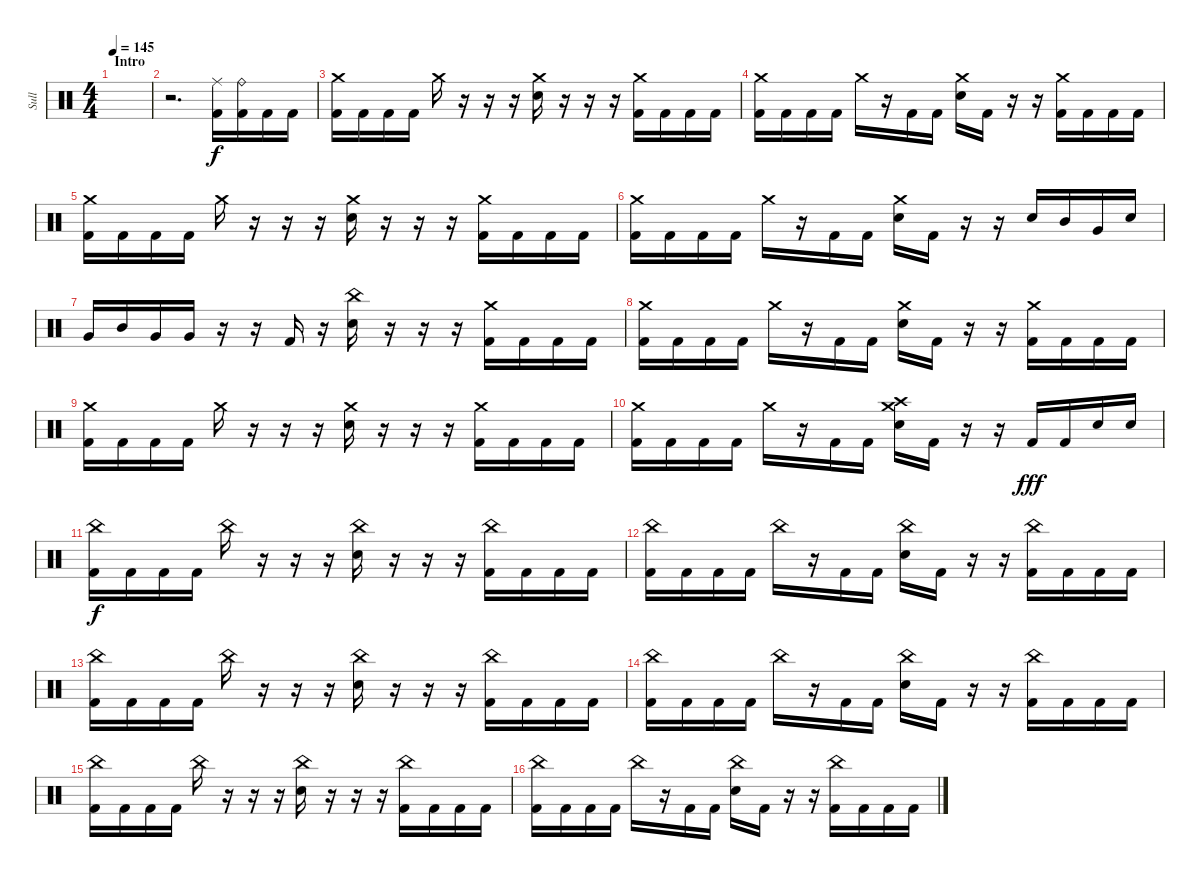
\track ("Sull" "Sull") {instrument percussion}
\staff {score}
\articulation defaults
\ts (4 4)
\section ("" "Intro")
\tempo 145
\clef neutral
\ks c
|
r.2{d} ("Ride (middle)" "Kick (hit) 2").16 ("Ride (bell)" "Kick (hit) 2").16 "Kick (hit) 2".16 "Kick (hit) 2".16 |
("Crash medium (hit)" "Kick (hit) 2").16 "Kick (hit) 2".16 "Kick (hit) 2".16 "Kick (hit) 2".16 "Crash medium (hit)".16 r.16 r.16 r.16 ("Crash medium (hit)" "Electric Snare (hit)").16 r.16 r.16 r.16 ("Crash medium (hit)" "Kick (hit) 2").16 "Kick (hit) 2".16 "Kick (hit) 2".16 "Kick (hit) 2".16 |
("Crash medium (hit)" "Kick (hit) 2").16 "Kick (hit) 2".16 "Kick (hit) 2".16 "Kick (hit) 2".16 "Crash medium (hit)".16 r.16 "Kick (hit) 2".16 "Kick (hit) 2".16 ("Crash medium (hit)" "Electric Snare (hit)").16 "Kick (hit) 2".16 r.16 r.16 ("Crash medium (hit)" "Kick (hit) 2").16 "Kick (hit) 2".16 "Kick (hit) 2".16 "Kick (hit) 2".16 |
("Crash medium (hit)" "Kick (hit) 2").16 "Kick (hit) 2".16 "Kick (hit) 2".16 "Kick (hit) 2".16 "Crash medium (hit)".16 r.16 r.16 r.16 ("Crash medium (hit)" "Electric Snare (hit)").16 r.16 r.16 r.16 ("Crash medium (hit)" "Kick (hit) 2").16 "Kick (hit) 2".16 "Kick (hit) 2".16 "Kick (hit) 2".16 |
("Crash medium (hit)" "Kick (hit) 2").16 "Kick (hit) 2".16 "Kick (hit) 2".16 "Kick (hit) 2".16 "Crash medium (hit)".16 r.16 "Kick (hit) 2".16 "Kick (hit) 2".16 ("Crash medium (hit)" "Electric Snare (hit)").16 "Kick (hit) 2".16 r.16 r.16 "Electric Snare (hit)".16 "Mid Tom (hit)".16 "Very Low Tom (hit)".16 "Electric Snare (hit)".16 |
"Very Low Tom (hit)".16 "Mid Tom (hit)".16 "Very Low Tom (hit)".16 "Very Low Tom (hit)".16 r.16 r.16 "Kick (hit) 2".16 r.16 ("China (hit)" "Electric Snare (hit)").16 r.16 r.16 r.16 ("Crash medium (hit)" "Kick (hit) 2").16 "Kick (hit) 2".16 "Kick (hit) 2".16 "Kick (hit) 2".16 |
("Crash medium (hit)" "Kick (hit) 2").16 "Kick (hit) 2".16 "Kick (hit) 2".16 "Kick (hit) 2".16 "Crash medium (hit)".16 r.16 "Kick (hit) 2".16 "Kick (hit) 2".16 ("Crash medium (hit)" "Electric Snare (hit)").16 "Kick (hit) 2".16 r.16 r.16 ("Crash medium (hit)" "Kick (hit) 2").16 "Kick (hit) 2".16 "Kick (hit) 2".16 "Kick (hit) 2".16 |
("Crash medium (hit)" "Kick (hit) 2").16 "Kick (hit) 2".16 "Kick (hit) 2".16 "Kick (hit) 2".16 "Crash medium (hit)".16 r.16 r.16 r.16 ("Crash medium (hit)" "Electric Snare (hit)").16 r.16 r.16 r.16 ("Crash medium (hit)" "Kick (hit) 2").16 "Kick (hit) 2".16 "Kick (hit) 2".16 "Kick (hit) 2".16 |
("Crash medium (hit)" "Kick (hit) 2").16 "Kick (hit) 2".16 "Kick (hit) 2".16 "Kick (hit) 2".16 "Crash medium (hit)".16 r.16 "Kick (hit) 2".16 "Kick (hit) 2".16 ("Crash high (hit)" "Crash medium (hit)" "Electric Snare (hit)").16 "Kick (hit) 2".16 r.16 r.16 "Kick (hit) 2".16{dy fff} "Kick (hit) 2".16 "Electric Snare (hit)".16 "Electric Snare (hit)".16 |
("China (hit)" "Kick (hit) 2").16{dy f} "Kick (hit) 2".16 "Kick (hit) 2".16 "Kick (hit) 2".16 "China (hit)".16 r.16 r.16 r.16 ("China (hit)" "Electric Snare (hit)").16 r.16 r.16 r.16 ("China (hit)" "Kick (hit) 2").16 "Kick (hit) 2".16 "Kick (hit) 2".16 "Kick (hit) 2".16 |
("China (hit)" "Kick (hit) 2").16 "Kick (hit) 2".16 "Kick (hit) 2".16 "Kick (hit) 2".16 "China (hit)".16 r.16 "Kick (hit) 2".16 "Kick (hit) 2".16 ("China (hit)" "Electric Snare (hit)").16 "Kick (hit) 2".16 r.16 r.16 ("China (hit)" "Kick (hit) 2").16 "Kick (hit) 2".16 "Kick (hit) 2".16 "Kick (hit) 2".16 |
("China (hit)" "Kick (hit) 2").16 "Kick (hit) 2".16 "Kick (hit) 2".16 "Kick (hit) 2".16 "China (hit)".16 r.16 r.16 r.16 ("China (hit)" "Electric Snare (hit)").16 r.16 r.16 r.16 ("China (hit)" "Kick (hit) 2").16 "Kick (hit) 2".16 "Kick (hit) 2".16 "Kick (hit) 2".16 |
("China (hit)" "Kick (hit) 2").16 "Kick (hit) 2".16 "Kick (hit) 2".16 "Kick (hit) 2".16 "China (hit)".16 r.16 "Kick (hit) 2".16 "Kick (hit) 2".16 ("China (hit)" "Electric Snare (hit)").16 "Kick (hit) 2".16 r.16 r.16 ("China (hit)" "Kick (hit) 2").16 "Kick (hit) 2".16 "Kick (hit) 2".16 "Kick (hit) 2".16 |
("China (hit)" "Kick (hit) 2").16 "Kick (hit) 2".16 "Kick (hit) 2".16 "Kick (hit) 2".16 "China (hit)".16 r.16 r.16 r.16 ("China (hit)" "Electric Snare (hit)").16 r.16 r.16 r.16 ("China (hit)" "Kick (hit) 2").16 "Kick (hit) 2".16 "Kick (hit) 2".16 "Kick (hit) 2".16 |
("China (hit)" "Kick (hit) 2").16 "Kick (hit) 2".16 "Kick (hit) 2".16 "Kick (hit) 2".16 "China (hit)".16 r.16 "Kick (hit) 2".16 "Kick (hit) 2".16 ("China (hit)" "Electric Snare (hit)").16 "Kick (hit) 2".16 r.16 r.16 ("China (hit)" "Kick (hit) 2").16 "Kick (hit) 2".16 "Kick (hit) 2".16 "Kick (hit) 2".16
